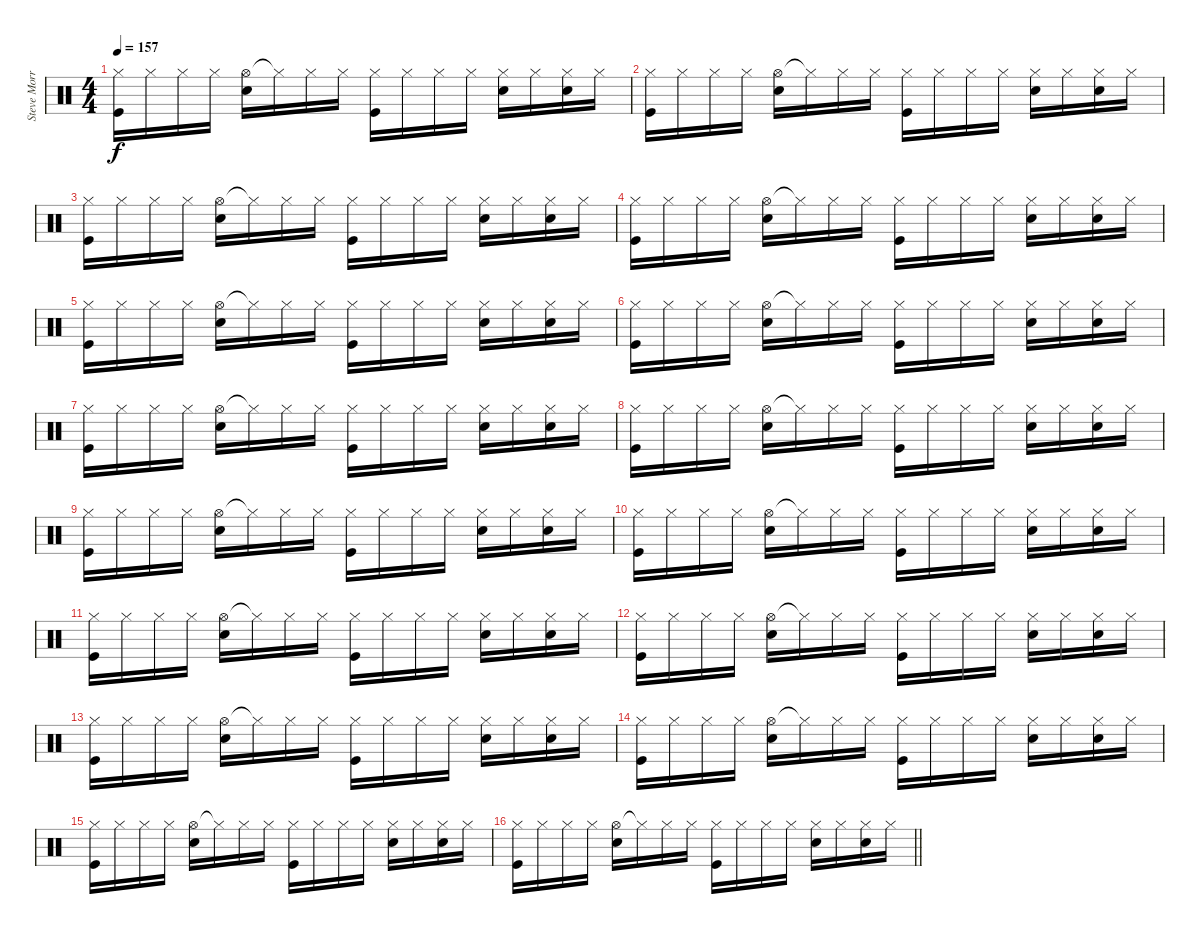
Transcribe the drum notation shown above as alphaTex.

\track ("Steve Morris" "Steve Morr") {instrument percussion}
\staff {score}
\articulation defaults
\ts (4 4)
\tempo 157
\clef neutral
\ks c
("Hi-Hat (closed)" "Kick (hit)").16{dy f} "Hi-Hat (closed)".16 "Hi-Hat (closed)".16 "Hi-Hat (closed)".16 ("Hi-Hat (open)" "Electric Snare (hit)").16 "Hi-Hat (closed)"{t}.16 "Hi-Hat (closed)".16 "Hi-Hat (closed)".16 ("Hi-Hat (closed)" "Kick (hit)").16 "Hi-Hat (closed)".16 "Hi-Hat (closed)".16 "Hi-Hat (closed)".16 ("Hi-Hat (closed)" "Electric Snare (hit)").16 "Hi-Hat (closed)".16 ("Hi-Hat (closed)" "Electric Snare (hit)").16 "Hi-Hat (closed)".16 |
("Hi-Hat (closed)" "Kick (hit)").16 "Hi-Hat (closed)".16 "Hi-Hat (closed)".16 "Hi-Hat (closed)".16 ("Hi-Hat (open)" "Electric Snare (hit)").16 "Hi-Hat (closed)"{t}.16 "Hi-Hat (closed)".16 "Hi-Hat (closed)".16 ("Hi-Hat (closed)" "Kick (hit)").16 "Hi-Hat (closed)".16 "Hi-Hat (closed)".16 "Hi-Hat (closed)".16 ("Hi-Hat (closed)" "Electric Snare (hit)").16 "Hi-Hat (closed)".16 ("Hi-Hat (closed)" "Electric Snare (hit)").16 "Hi-Hat (closed)".16 |
("Hi-Hat (closed)" "Kick (hit)").16 "Hi-Hat (closed)".16 "Hi-Hat (closed)".16 "Hi-Hat (closed)".16 ("Hi-Hat (open)" "Electric Snare (hit)").16 "Hi-Hat (closed)"{t}.16 "Hi-Hat (closed)".16 "Hi-Hat (closed)".16 ("Hi-Hat (closed)" "Kick (hit)").16 "Hi-Hat (closed)".16 "Hi-Hat (closed)".16 "Hi-Hat (closed)".16 ("Hi-Hat (closed)" "Electric Snare (hit)").16 "Hi-Hat (closed)".16 ("Hi-Hat (closed)" "Electric Snare (hit)").16 "Hi-Hat (closed)".16 |
("Hi-Hat (closed)" "Kick (hit)").16 "Hi-Hat (closed)".16 "Hi-Hat (closed)".16 "Hi-Hat (closed)".16 ("Hi-Hat (open)" "Electric Snare (hit)").16 "Hi-Hat (closed)"{t}.16 "Hi-Hat (closed)".16 "Hi-Hat (closed)".16 ("Hi-Hat (closed)" "Kick (hit)").16 "Hi-Hat (closed)".16 "Hi-Hat (closed)".16 "Hi-Hat (closed)".16 ("Hi-Hat (closed)" "Electric Snare (hit)").16 "Hi-Hat (closed)".16 ("Hi-Hat (closed)" "Electric Snare (hit)").16 "Hi-Hat (closed)".16 |
("Hi-Hat (closed)" "Kick (hit)").16 "Hi-Hat (closed)".16 "Hi-Hat (closed)".16 "Hi-Hat (closed)".16 ("Hi-Hat (open)" "Electric Snare (hit)").16 "Hi-Hat (closed)"{t}.16 "Hi-Hat (closed)".16 "Hi-Hat (closed)".16 ("Hi-Hat (closed)" "Kick (hit)").16 "Hi-Hat (closed)".16 "Hi-Hat (closed)".16 "Hi-Hat (closed)".16 ("Hi-Hat (closed)" "Electric Snare (hit)").16 "Hi-Hat (closed)".16 ("Hi-Hat (closed)" "Electric Snare (hit)").16 "Hi-Hat (closed)".16 |
("Hi-Hat (closed)" "Kick (hit)").16 "Hi-Hat (closed)".16 "Hi-Hat (closed)".16 "Hi-Hat (closed)".16 ("Hi-Hat (open)" "Electric Snare (hit)").16 "Hi-Hat (closed)"{t}.16 "Hi-Hat (closed)".16 "Hi-Hat (closed)".16 ("Hi-Hat (closed)" "Kick (hit)").16 "Hi-Hat (closed)".16 "Hi-Hat (closed)".16 "Hi-Hat (closed)".16 ("Hi-Hat (closed)" "Electric Snare (hit)").16 "Hi-Hat (closed)".16 ("Hi-Hat (closed)" "Electric Snare (hit)").16 "Hi-Hat (closed)".16 |
("Hi-Hat (closed)" "Kick (hit)").16 "Hi-Hat (closed)".16 "Hi-Hat (closed)".16 "Hi-Hat (closed)".16 ("Hi-Hat (open)" "Electric Snare (hit)").16 "Hi-Hat (closed)"{t}.16 "Hi-Hat (closed)".16 "Hi-Hat (closed)".16 ("Hi-Hat (closed)" "Kick (hit)").16 "Hi-Hat (closed)".16 "Hi-Hat (closed)".16 "Hi-Hat (closed)".16 ("Hi-Hat (closed)" "Electric Snare (hit)").16 "Hi-Hat (closed)".16 ("Hi-Hat (closed)" "Electric Snare (hit)").16 "Hi-Hat (closed)".16 |
("Hi-Hat (closed)" "Kick (hit)").16 "Hi-Hat (closed)".16 "Hi-Hat (closed)".16 "Hi-Hat (closed)".16 ("Hi-Hat (open)" "Electric Snare (hit)").16 "Hi-Hat (closed)"{t}.16 "Hi-Hat (closed)".16 "Hi-Hat (closed)".16 ("Hi-Hat (closed)" "Kick (hit)").16 "Hi-Hat (closed)".16 "Hi-Hat (closed)".16 "Hi-Hat (closed)".16 ("Hi-Hat (closed)" "Electric Snare (hit)").16 "Hi-Hat (closed)".16 ("Hi-Hat (closed)" "Electric Snare (hit)").16 "Hi-Hat (closed)".16 |
("Hi-Hat (closed)" "Kick (hit)").16 "Hi-Hat (closed)".16 "Hi-Hat (closed)".16 "Hi-Hat (closed)".16 ("Hi-Hat (open)" "Electric Snare (hit)").16 "Hi-Hat (closed)"{t}.16 "Hi-Hat (closed)".16 "Hi-Hat (closed)".16 ("Hi-Hat (closed)" "Kick (hit)").16 "Hi-Hat (closed)".16 "Hi-Hat (closed)".16 "Hi-Hat (closed)".16 ("Hi-Hat (closed)" "Electric Snare (hit)").16 "Hi-Hat (closed)".16 ("Hi-Hat (closed)" "Electric Snare (hit)").16 "Hi-Hat (closed)".16 |
("Hi-Hat (closed)" "Kick (hit)").16 "Hi-Hat (closed)".16 "Hi-Hat (closed)".16 "Hi-Hat (closed)".16 ("Hi-Hat (open)" "Electric Snare (hit)").16 "Hi-Hat (closed)"{t}.16 "Hi-Hat (closed)".16 "Hi-Hat (closed)".16 ("Hi-Hat (closed)" "Kick (hit)").16 "Hi-Hat (closed)".16 "Hi-Hat (closed)".16 "Hi-Hat (closed)".16 ("Hi-Hat (closed)" "Electric Snare (hit)").16 "Hi-Hat (closed)".16 ("Hi-Hat (closed)" "Electric Snare (hit)").16 "Hi-Hat (closed)".16 |
("Hi-Hat (closed)" "Kick (hit)").16 "Hi-Hat (closed)".16 "Hi-Hat (closed)".16 "Hi-Hat (closed)".16 ("Hi-Hat (open)" "Electric Snare (hit)").16 "Hi-Hat (closed)"{t}.16 "Hi-Hat (closed)".16 "Hi-Hat (closed)".16 ("Hi-Hat (closed)" "Kick (hit)").16 "Hi-Hat (closed)".16 "Hi-Hat (closed)".16 "Hi-Hat (closed)".16 ("Hi-Hat (closed)" "Electric Snare (hit)").16 "Hi-Hat (closed)".16 ("Hi-Hat (closed)" "Electric Snare (hit)").16 "Hi-Hat (closed)".16 |
("Hi-Hat (closed)" "Kick (hit)").16 "Hi-Hat (closed)".16 "Hi-Hat (closed)".16 "Hi-Hat (closed)".16 ("Hi-Hat (open)" "Electric Snare (hit)").16 "Hi-Hat (closed)"{t}.16 "Hi-Hat (closed)".16 "Hi-Hat (closed)".16 ("Hi-Hat (closed)" "Kick (hit)").16 "Hi-Hat (closed)".16 "Hi-Hat (closed)".16 "Hi-Hat (closed)".16 ("Hi-Hat (closed)" "Electric Snare (hit)").16 "Hi-Hat (closed)".16 ("Hi-Hat (closed)" "Electric Snare (hit)").16 "Hi-Hat (closed)".16 |
("Hi-Hat (closed)" "Kick (hit)").16 "Hi-Hat (closed)".16 "Hi-Hat (closed)".16 "Hi-Hat (closed)".16 ("Hi-Hat (open)" "Electric Snare (hit)").16 "Hi-Hat (closed)"{t}.16 "Hi-Hat (closed)".16 "Hi-Hat (closed)".16 ("Hi-Hat (closed)" "Kick (hit)").16 "Hi-Hat (closed)".16 "Hi-Hat (closed)".16 "Hi-Hat (closed)".16 ("Hi-Hat (closed)" "Electric Snare (hit)").16 "Hi-Hat (closed)".16 ("Hi-Hat (closed)" "Electric Snare (hit)").16 "Hi-Hat (closed)".16 |
("Hi-Hat (closed)" "Kick (hit)").16 "Hi-Hat (closed)".16 "Hi-Hat (closed)".16 "Hi-Hat (closed)".16 ("Hi-Hat (open)" "Electric Snare (hit)").16 "Hi-Hat (closed)"{t}.16 "Hi-Hat (closed)".16 "Hi-Hat (closed)".16 ("Hi-Hat (closed)" "Kick (hit)").16 "Hi-Hat (closed)".16 "Hi-Hat (closed)".16 "Hi-Hat (closed)".16 ("Hi-Hat (closed)" "Electric Snare (hit)").16 "Hi-Hat (closed)".16 ("Hi-Hat (closed)" "Electric Snare (hit)").16 "Hi-Hat (closed)".16 |
("Hi-Hat (closed)" "Kick (hit)").16 "Hi-Hat (closed)".16 "Hi-Hat (closed)".16 "Hi-Hat (closed)".16 ("Hi-Hat (open)" "Electric Snare (hit)").16 "Hi-Hat (closed)"{t}.16 "Hi-Hat (closed)".16 "Hi-Hat (closed)".16 ("Hi-Hat (closed)" "Kick (hit)").16 "Hi-Hat (closed)".16 "Hi-Hat (closed)".16 "Hi-Hat (closed)".16 ("Hi-Hat (closed)" "Electric Snare (hit)").16 "Hi-Hat (closed)".16 ("Hi-Hat (closed)" "Electric Snare (hit)").16 "Hi-Hat (closed)".16 |
\barLineRight lightlight
("Hi-Hat (closed)" "Kick (hit)").16 "Hi-Hat (closed)".16 "Hi-Hat (closed)".16 "Hi-Hat (closed)".16 ("Hi-Hat (open)" "Electric Snare (hit)").16 "Hi-Hat (closed)"{t}.16 "Hi-Hat (closed)".16 "Hi-Hat (closed)".16 ("Hi-Hat (closed)" "Kick (hit)").16 "Hi-Hat (closed)".16 "Hi-Hat (closed)".16 "Hi-Hat (closed)".16 ("Hi-Hat (closed)" "Electric Snare (hit)").16 "Hi-Hat (closed)".16 ("Hi-Hat (closed)" "Electric Snare (hit)").16 "Hi-Hat (closed)".16
